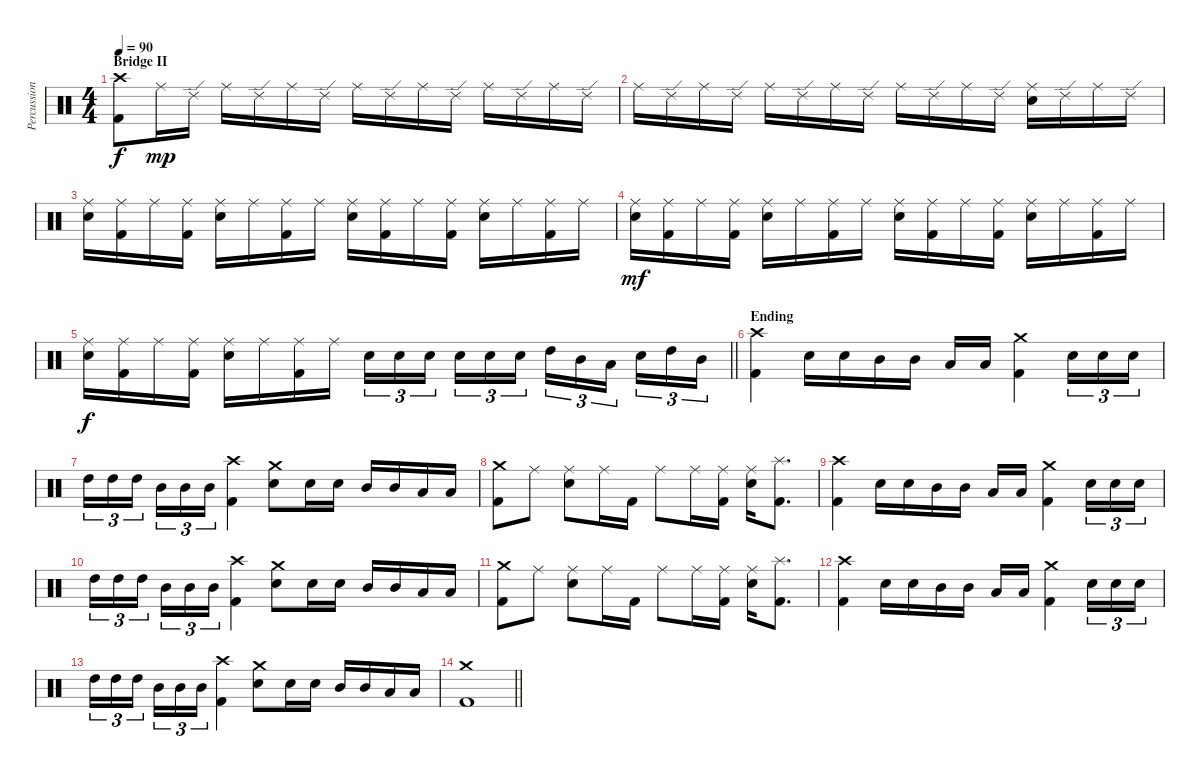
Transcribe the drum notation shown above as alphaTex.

\track ("Percussions" "Percussion") {instrument percussion}
\staff {score}
\articulation defaults
\ts (4 4)
\section ("" "Bridge II")
\tempo 90
\clef neutral
\ks c
("Crash high (hit)" "Kick (hit) 2").8{dy f} "Ride (middle)".16{dy mp} "Ride (edge) 2".16 "Ride (middle)".16 "Ride (edge) 2".16 "Ride (middle)".16 "Ride (edge) 2".16 "Ride (middle)".16 "Ride (edge) 2".16 "Ride (middle)".16 "Ride (edge) 2".16 "Ride (middle)".16 "Ride (edge) 2".16 "Ride (middle)".16 "Ride (edge) 2".16 |
"Ride (middle)".16 "Ride (edge) 2".16 "Ride (middle)".16 "Ride (edge) 2".16 "Ride (middle)".16 "Ride (edge) 2".16 "Ride (middle)".16 "Ride (edge) 2".16 "Ride (middle)".16 "Ride (edge) 2".16 "Ride (middle)".16 "Ride (edge) 2".16 ("Ride (middle)" "Electric Snare (hit)").16 "Ride (edge) 2".16 "Ride (middle)".16 "Ride (edge) 2".16 |
("Ride (middle)" "Electric Snare (hit)").16 ("Ride (middle)" "Kick (hit) 2").16 "Ride (middle)".16 ("Ride (middle)" "Kick (hit) 2").16 ("Ride (middle)" "Electric Snare (hit)").16 "Ride (middle)".16 ("Ride (middle)" "Kick (hit) 2").16 "Ride (middle)".16 ("Ride (middle)" "Electric Snare (hit)").16 ("Ride (middle)" "Kick (hit) 2").16 "Ride (middle)".16 ("Ride (middle)" "Kick (hit) 2").16 ("Ride (middle)" "Electric Snare (hit)").16 "Ride (middle)".16 ("Ride (middle)" "Kick (hit) 2").16 "Ride (middle)".16 |
("Ride (middle)" "Electric Snare (hit)").16{dy mf} ("Ride (middle)" "Kick (hit) 2").16 "Ride (middle)".16 ("Ride (middle)" "Kick (hit) 2").16 ("Ride (middle)" "Electric Snare (hit)").16 "Ride (middle)".16 ("Ride (middle)" "Kick (hit) 2").16 "Ride (middle)".16 ("Ride (middle)" "Electric Snare (hit)").16 ("Ride (middle)" "Kick (hit) 2").16 "Ride (middle)".16 ("Ride (middle)" "Kick (hit) 2").16 ("Ride (middle)" "Electric Snare (hit)").16 "Ride (middle)".16 ("Ride (middle)" "Kick (hit) 2").16 "Ride (middle)".16 |
\barLineRight lightlight
("Ride (middle)" "Electric Snare (hit)").16{dy f} ("Ride (middle)" "Kick (hit) 2").16 "Ride (middle)".16 ("Ride (middle)" "Kick (hit) 2").16 ("Ride (middle)" "Electric Snare (hit)").16 "Ride (middle)".16 ("Ride (middle)" "Kick (hit) 2").16 "Ride (middle)".16 "Electric Snare (hit)".16{tu (3 2)} "Electric Snare (hit)".16{tu (3 2)} "Electric Snare (hit)".16{tu (3 2) beam splitsecondary} "Electric Snare (hit)".16{tu (3 2)} "Electric Snare (hit)".16{tu (3 2)} "Electric Snare (hit)".16{tu (3 2)} "High Tom (hit)".16{tu (3 2)} "Mid Tom (hit)".16{tu (3 2)} "Low Tom (hit)".16{tu (3 2) beam splitsecondary} "Electric Snare (hit)".16{tu (3 2)} "High Tom (hit)".16{tu (3 2)} "Mid Tom (hit)".16{tu (3 2)} |
\section ("" "Ending")
("Crash high (hit)" "Kick (hit) 2").4 "Electric Snare (hit)".16 "Electric Snare (hit)".16 "Mid Tom (hit)".16 "Mid Tom (hit)".16 "Low Tom (hit)".16 "Low Tom (hit)".16 ("Crash medium (hit)" "Kick (hit) 2").4 "Electric Snare (hit)".16{tu (3 2)} "Electric Snare (hit)".16{tu (3 2)} "Electric Snare (hit)".16{tu (3 2)} |
"High Tom (hit)".16{tu (3 2)} "High Tom (hit)".16{tu (3 2)} "High Tom (hit)".16{tu (3 2) beam splitsecondary} "Mid Tom (hit)".16{tu (3 2)} "Mid Tom (hit)".16{tu (3 2)} "Mid Tom (hit)".16{tu (3 2)} ("Crash high (hit)" "Kick (hit) 2").4 ("Crash medium (hit)" "Electric Snare (hit)").8 "Electric Snare (hit)".16 "Electric Snare (hit)".16 "Mid Tom (hit)".16 "Mid Tom (hit)".16 "Low Tom (hit)".16 "Low Tom (hit)".16 |
("Crash medium (hit)" "Kick (hit) 2").8 "Ride (middle)".8 ("Ride (middle)" "Electric Snare (hit)").8 "Ride (middle)".16 "Kick (hit) 2".16 "Ride (middle)".8 "Ride (middle)".16 ("Ride (middle)" "Kick (hit) 2").16 ("Ride (middle)" "Electric Snare (hit)").16 ("Splash (hit)" "Kick (hit) 2").8{d} |
("Crash high (hit)" "Kick (hit) 2").4 "Electric Snare (hit)".16 "Electric Snare (hit)".16 "Mid Tom (hit)".16 "Mid Tom (hit)".16 "Low Tom (hit)".16 "Low Tom (hit)".16 ("Crash medium (hit)" "Kick (hit) 2").4 "Electric Snare (hit)".16{tu (3 2)} "Electric Snare (hit)".16{tu (3 2)} "Electric Snare (hit)".16{tu (3 2)} |
"High Tom (hit)".16{tu (3 2)} "High Tom (hit)".16{tu (3 2)} "High Tom (hit)".16{tu (3 2) beam splitsecondary} "Mid Tom (hit)".16{tu (3 2)} "Mid Tom (hit)".16{tu (3 2)} "Mid Tom (hit)".16{tu (3 2)} ("Crash high (hit)" "Kick (hit) 2").4 ("Crash medium (hit)" "Electric Snare (hit)").8 "Electric Snare (hit)".16 "Electric Snare (hit)".16 "Mid Tom (hit)".16 "Mid Tom (hit)".16 "Low Tom (hit)".16 "Low Tom (hit)".16 |
("Crash medium (hit)" "Kick (hit) 2").8 "Ride (middle)".8 ("Ride (middle)" "Electric Snare (hit)").8 "Ride (middle)".16 "Kick (hit) 2".16 "Ride (middle)".8 "Ride (middle)".16 ("Ride (middle)" "Kick (hit) 2").16 ("Ride (middle)" "Electric Snare (hit)").16 ("Splash (hit)" "Kick (hit) 2").8{d} |
("Crash high (hit)" "Kick (hit) 2").4 "Electric Snare (hit)".16 "Electric Snare (hit)".16 "Mid Tom (hit)".16 "Mid Tom (hit)".16 "Low Tom (hit)".16 "Low Tom (hit)".16 ("Crash medium (hit)" "Kick (hit) 2").4 "Electric Snare (hit)".16{tu (3 2)} "Electric Snare (hit)".16{tu (3 2)} "Electric Snare (hit)".16{tu (3 2)} |
"High Tom (hit)".16{tu (3 2)} "High Tom (hit)".16{tu (3 2)} "High Tom (hit)".16{tu (3 2) beam splitsecondary} "Mid Tom (hit)".16{tu (3 2)} "Mid Tom (hit)".16{tu (3 2)} "Mid Tom (hit)".16{tu (3 2)} ("Crash high (hit)" "Kick (hit) 2").4 ("Crash medium (hit)" "Electric Snare (hit)").8 "Electric Snare (hit)".16 "Electric Snare (hit)".16 "Mid Tom (hit)".16 "Mid Tom (hit)".16 "Low Tom (hit)".16 "Low Tom (hit)".16 |
\barLineRight lightlight
("Crash medium (hit)" "Kick (hit) 2").1
